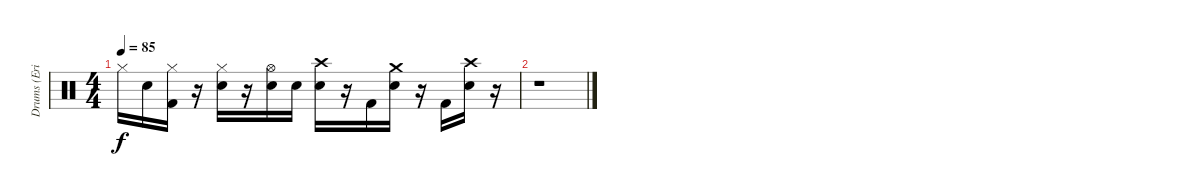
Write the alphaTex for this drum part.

\track ("Drums (Eric Kretz)" "Drums (Eri") {instrument percussion}
\staff {score}
\articulation defaults
\ts (4 4)
\tempo 85
\clef neutral
\ks c "Hi-Hat (closed)".16{dy f} "Electric Snare (hit)".16
("Hi-Hat (closed)" "Kick (hit) 2").16 r.16 ("Hi-Hat (closed)" "Electric Snare (hit)").16 r.16 ("Hi-Hat (open)" "Electric Snare (hit)").16 "Electric Snare (hit)".16 ("Crash high (hit)" "Electric Snare (hit)").16 r.16 "Kick (hit) 2".16 ("Crash medium (hit)" "Electric Snare (hit)").16 r.16 "Kick (hit) 2".16 ("Crash high (hit)" "Electric Snare (hit)").16 r.16 |
r.1
